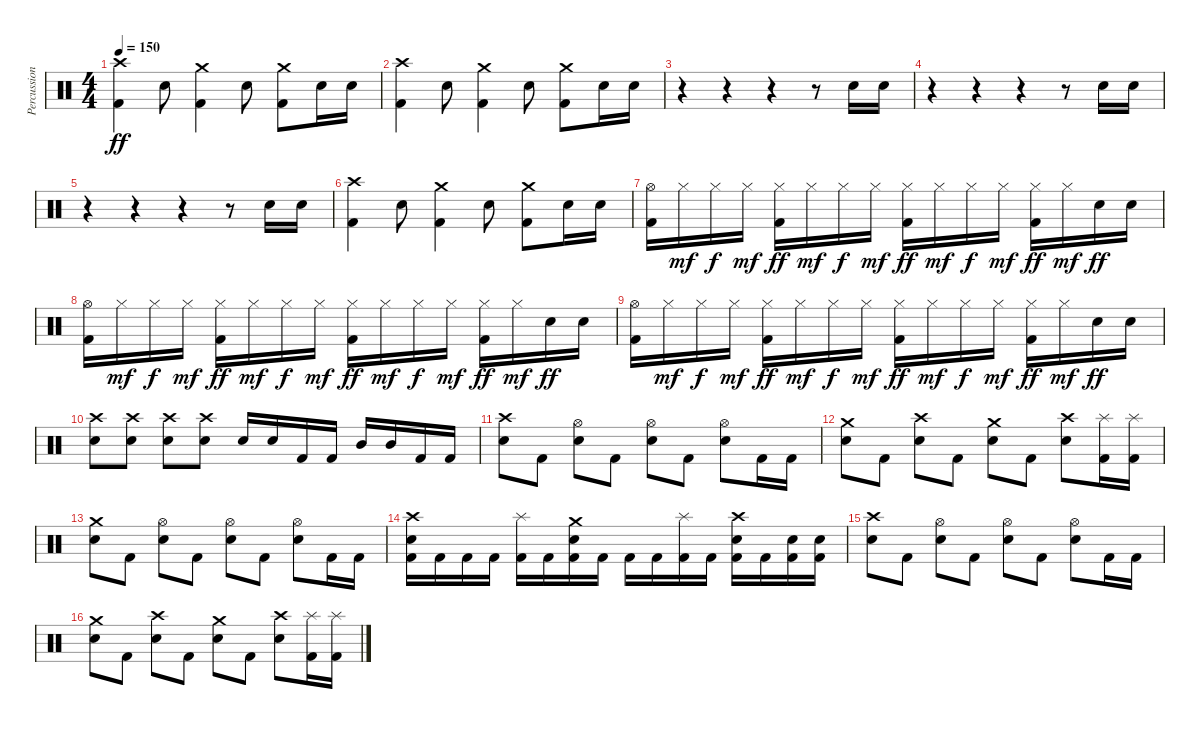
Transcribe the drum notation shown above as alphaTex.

\track ("Percussion" "Percussion") {instrument percussion}
\staff {score}
\articulation defaults
\ts (4 4)
\tempo 150
\clef neutral
\ks c
("Crash high (hit)" "Kick (hit) 2").4{dy ff} "Snare (hit) 2".8 ("Crash medium (hit)" "Kick (hit) 2").4 "Snare (hit) 2".8 ("Crash medium (hit)" "Kick (hit) 2").8 "Snare (hit) 2".16 "Snare (hit) 2".16 |
("Crash high (hit)" "Kick (hit) 2").4 "Snare (hit) 2".8 ("Crash medium (hit)" "Kick (hit) 2").4 "Snare (hit) 2".8 ("Crash medium (hit)" "Kick (hit) 2").8 "Snare (hit) 2".16 "Snare (hit) 2".16 |
r.4 r.4 r.4 r.8 "Snare (hit) 2".16 "Snare (hit) 2".16 |
r.4 r.4 r.4 r.8 "Snare (hit) 2".16 "Snare (hit) 2".16 |
r.4 r.4 r.4 r.8 "Snare (hit) 2".16 "Snare (hit) 2".16 |
("Crash high (hit)" "Kick (hit) 2").4 "Snare (hit) 2".8 ("Crash medium (hit)" "Kick (hit) 2").4 "Snare (hit) 2".8 ("Crash medium (hit)" "Kick (hit) 2").8 "Snare (hit) 2".16 "Snare (hit) 2".16 |
("Hi-Hat (open)" "Kick (hit) 2").16 "Hi-Hat (closed)".16{dy mf} "Hi-Hat (closed)".16{dy f} "Hi-Hat (closed)".16{dy mf} ("Hi-Hat (closed)" "Kick (hit) 2").16{dy ff} "Hi-Hat (closed)".16{dy mf} "Hi-Hat (closed)".16{dy f} "Hi-Hat (closed)".16{dy mf} ("Hi-Hat (closed)" "Kick (hit) 2").16{dy ff} "Hi-Hat (closed)".16{dy mf} "Hi-Hat (closed)".16{dy f} "Hi-Hat (closed)".16{dy mf} ("Hi-Hat (closed)" "Kick (hit) 2").16{dy ff} "Hi-Hat (closed)".16{dy mf} "Snare (hit) 2".16{dy ff} "Snare (hit) 2".16 |
("Hi-Hat (open)" "Kick (hit) 2").16 "Hi-Hat (closed)".16{dy mf} "Hi-Hat (closed)".16{dy f} "Hi-Hat (closed)".16{dy mf} ("Hi-Hat (closed)" "Kick (hit) 2").16{dy ff} "Hi-Hat (closed)".16{dy mf} "Hi-Hat (closed)".16{dy f} "Hi-Hat (closed)".16{dy mf} ("Hi-Hat (closed)" "Kick (hit) 2").16{dy ff} "Hi-Hat (closed)".16{dy mf} "Hi-Hat (closed)".16{dy f} "Hi-Hat (closed)".16{dy mf} ("Hi-Hat (closed)" "Kick (hit) 2").16{dy ff} "Hi-Hat (closed)".16{dy mf} "Snare (hit) 2".16{dy ff} "Snare (hit) 2".16 |
("Hi-Hat (open)" "Kick (hit) 2").16 "Hi-Hat (closed)".16{dy mf} "Hi-Hat (closed)".16{dy f} "Hi-Hat (closed)".16{dy mf} ("Hi-Hat (closed)" "Kick (hit) 2").16{dy ff} "Hi-Hat (closed)".16{dy mf} "Hi-Hat (closed)".16{dy f} "Hi-Hat (closed)".16{dy mf} ("Hi-Hat (closed)" "Kick (hit) 2").16{dy ff} "Hi-Hat (closed)".16{dy mf} "Hi-Hat (closed)".16{dy f} "Hi-Hat (closed)".16{dy mf} ("Hi-Hat (closed)" "Kick (hit) 2").16{dy ff} "Hi-Hat (closed)".16{dy mf} "Snare (hit) 2".16{dy ff} "Snare (hit) 2".16 |
("Crash high (hit)" "Snare (hit) 2").8 ("Crash high (hit)" "Snare (hit) 2").8 ("Crash high (hit)" "Snare (hit) 2").8 ("Crash high (hit)" "Snare (hit) 2").8 "Snare (hit) 2".16 "Snare (hit) 2".16 "Kick (hit) 2".16 "Kick (hit) 2".16 "Mid Tom (hit)".16 "Mid Tom (hit)".16 "Kick (hit) 2".16 "Kick (hit) 2".16 |
("Crash high (hit)" "Snare (hit) 2").8 "Kick (hit) 2".8 ("Hi-Hat (open)" "Snare (hit) 2").8 "Kick (hit) 2".8 ("Hi-Hat (open)" "Snare (hit) 2").8 "Kick (hit) 2".8 ("Hi-Hat (open)" "Snare (hit) 2").8 "Kick (hit) 2".16 "Kick (hit) 2".16 |
("Crash medium (hit)" "Snare (hit) 2").8 "Kick (hit) 2".8 ("Crash high (hit)" "Snare (hit) 2").8 "Kick (hit) 2".8 ("Crash medium (hit)" "Snare (hit) 2").8 "Kick (hit) 2".8 ("Crash high (hit)" "Snare (hit) 2").8 ("Kick (hit) 2" "Splash (hit)").16 ("Kick (hit) 2" "Splash (hit)").16 |
("Crash medium (hit)" "Snare (hit) 2").8 "Kick (hit) 2".8 ("Hi-Hat (open)" "Snare (hit) 2").8 "Kick (hit) 2".8 ("Hi-Hat (open)" "Snare (hit) 2").8 "Kick (hit) 2".8 ("Hi-Hat (open)" "Snare (hit) 2").8 "Kick (hit) 2".16 "Kick (hit) 2".16 |
("Crash high (hit)" "Snare (hit) 2" "Kick (hit) 2").16 "Kick (hit) 2".16 "Kick (hit) 2".16 "Kick (hit) 2".16 ("Splash (hit)" "Kick (hit) 2").16 "Kick (hit) 2".16 ("Crash medium (hit)" "Snare (hit) 2" "Kick (hit) 2").16 "Kick (hit) 2".16 "Kick (hit) 2".16 "Kick (hit) 2".16 ("Splash (hit)" "Kick (hit) 2").16 "Kick (hit) 2".16 ("Crash high (hit)" "Snare (hit) 2" "Kick (hit) 2").16 "Kick (hit) 2".16 ("Snare (hit) 2" "Kick (hit) 2").16 ("Snare (hit) 2" "Kick (hit) 2").16 |
("Crash high (hit)" "Snare (hit) 2").8 "Kick (hit) 2".8 ("Hi-Hat (open)" "Snare (hit) 2").8 "Kick (hit) 2".8 ("Hi-Hat (open)" "Snare (hit) 2").8 "Kick (hit) 2".8 ("Hi-Hat (open)" "Snare (hit) 2").8 "Kick (hit) 2".16 "Kick (hit) 2".16 |
("Crash medium (hit)" "Snare (hit) 2").8 "Kick (hit) 2".8 ("Crash high (hit)" "Snare (hit) 2").8 "Kick (hit) 2".8 ("Crash medium (hit)" "Snare (hit) 2").8 "Kick (hit) 2".8 ("Crash high (hit)" "Snare (hit) 2").8 ("Splash (hit)" "Kick (hit) 2").16 ("Splash (hit)" "Kick (hit) 2").16
